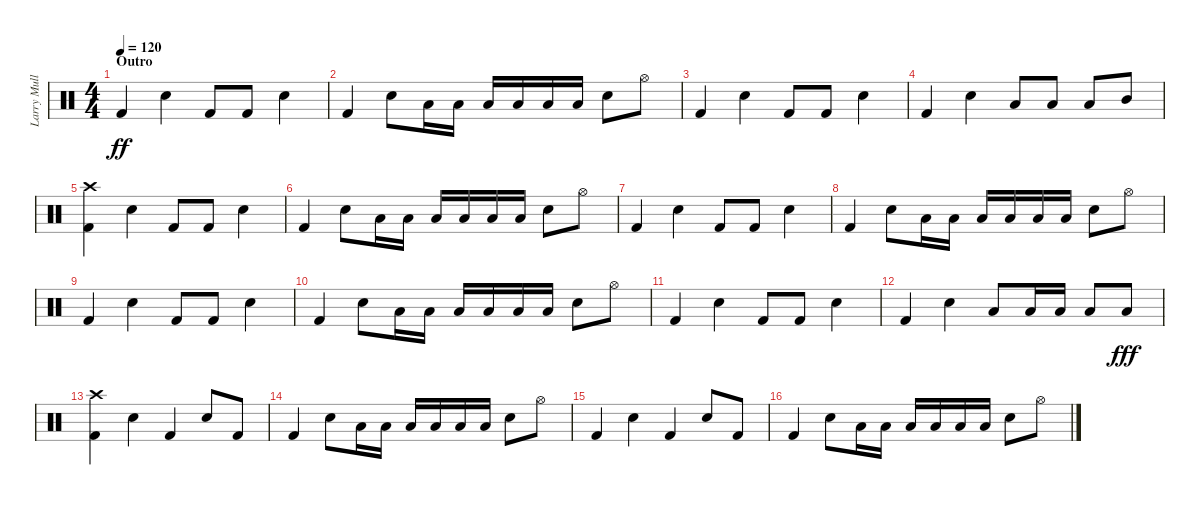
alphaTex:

\track ("Larry Mullen Jr" "Larry Mull") {instrument percussion}
\staff {score}
\articulation defaults
\ts (4 4)
\section ("" "Outro")
\tempo 120
\clef neutral
\ks c "Kick (hit) 2".4{dy ff} "Snare (hit) 2".4 "Kick (hit) 2".8 "Kick (hit) 2".8 "Snare (hit) 2".4
|
"Kick (hit) 2".4 "Snare (hit) 2".8 "Low Floor Tom (hit)".16 "Low Floor Tom (hit)".16 "Low Floor Tom (hit)".16 "Low Floor Tom (hit)".16 "Low Floor Tom (hit)".16 "Low Floor Tom (hit)".16 "Snare (hit) 2".8 "Hi-Hat (open)".8 |
"Kick (hit) 2".4 "Snare (hit) 2".4 "Kick (hit) 2".8 "Kick (hit) 2".8 "Snare (hit) 2".4 |
"Kick (hit) 2".4 "Snare (hit) 2".4 "Low Tom (hit)".8 "Low Tom (hit)".8 "Low Tom (hit)".8 "Mid Tom (hit)".8 |
("Kick (hit) 2" "Crash high (hit)").4 "Snare (hit) 2".4 "Kick (hit) 2".8 "Kick (hit) 2".8 "Snare (hit) 2".4 |
"Kick (hit) 2".4 "Snare (hit) 2".8 "Low Floor Tom (hit)".16 "Low Floor Tom (hit)".16 "Low Floor Tom (hit)".16 "Low Floor Tom (hit)".16 "Low Floor Tom (hit)".16 "Low Floor Tom (hit)".16 "Snare (hit) 2".8 "Hi-Hat (open)".8 |
"Kick (hit) 2".4 "Snare (hit) 2".4 "Kick (hit) 2".8 "Kick (hit) 2".8 "Snare (hit) 2".4 |
"Kick (hit) 2".4 "Snare (hit) 2".8 "Low Floor Tom (hit)".16 "Low Floor Tom (hit)".16 "Low Floor Tom (hit)".16 "Low Floor Tom (hit)".16 "Low Floor Tom (hit)".16 "Low Floor Tom (hit)".16 "Snare (hit) 2".8 "Hi-Hat (open)".8 |
"Kick (hit) 2".4 "Snare (hit) 2".4 "Kick (hit) 2".8 "Kick (hit) 2".8 "Snare (hit) 2".4 |
"Kick (hit) 2".4 "Snare (hit) 2".8 "Low Floor Tom (hit)".16 "Low Floor Tom (hit)".16 "Low Floor Tom (hit)".16 "Low Floor Tom (hit)".16 "Low Floor Tom (hit)".16 "Low Floor Tom (hit)".16 "Snare (hit) 2".8 "Hi-Hat (open)".8 |
"Kick (hit) 2".4 "Snare (hit) 2".4 "Kick (hit) 2".8 "Kick (hit) 2".8 "Snare (hit) 2".4 |
"Kick (hit) 2".4 "Snare (hit) 2".4 "Low Floor Tom (hit)".8 "Low Floor Tom (hit)".16 "Low Floor Tom (hit)".16 "Low Floor Tom (hit)".8 "Low Floor Tom (hit)".8{dy fff} |
("Kick (hit) 2" "Crash high (hit)").4 "Snare (hit) 2".4 "Kick (hit) 2".4 "Snare (hit) 2".8 "Kick (hit) 2".8 |
"Kick (hit) 2".4 "Snare (hit) 2".8 "Low Floor Tom (hit)".16 "Low Floor Tom (hit)".16 "Low Floor Tom (hit)".16 "Low Floor Tom (hit)".16 "Low Floor Tom (hit)".16 "Low Floor Tom (hit)".16 "Snare (hit) 2".8 "Hi-Hat (open)".8 |
"Kick (hit) 2".4 "Snare (hit) 2".4 "Kick (hit) 2".4 "Snare (hit) 2".8 "Kick (hit) 2".8 |
"Kick (hit) 2".4 "Snare (hit) 2".8 "Low Floor Tom (hit)".16 "Low Floor Tom (hit)".16 "Low Floor Tom (hit)".16 "Low Floor Tom (hit)".16 "Low Floor Tom (hit)".16 "Low Floor Tom (hit)".16 "Snare (hit) 2".8 "Hi-Hat (open)".8
